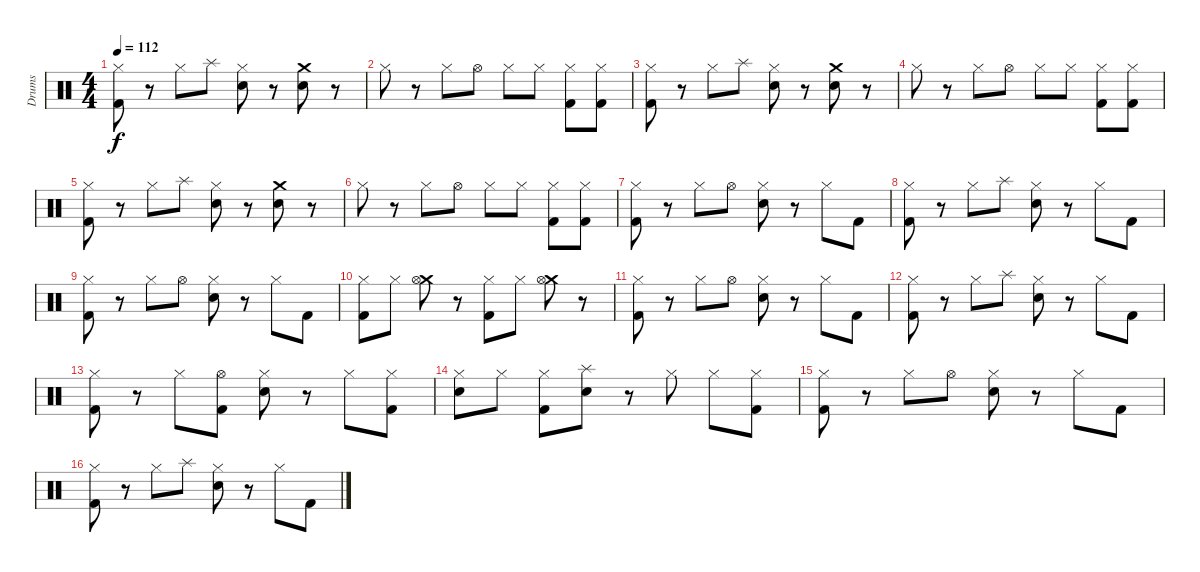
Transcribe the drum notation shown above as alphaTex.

\track ("Drums" "Drums") {instrument percussion}
\staff {score}
\articulation defaults
\ts (4 4)
\tempo 112
\clef neutral
\ks c
("Hi-Hat (closed)" "Kick (hit) 2").8{dy f} r.8 "Hi-Hat (closed)".8 "Splash (hit)".8 ("Hi-Hat (closed)" "Snare (hit) 2").8 r.8 ("Crash medium (hit)" "Snare (hit) 2").8 r.8 |
"Hi-Hat (closed)".8 r.8 "Hi-Hat (closed)".8 "Hi-Hat (open)".8 "Hi-Hat (closed)".8 "Hi-Hat (closed)".8 ("Hi-Hat (closed)" "Kick (hit) 2").8 ("Hi-Hat (closed)" "Kick (hit) 2").8 |
("Hi-Hat (closed)" "Kick (hit) 2").8 r.8 "Hi-Hat (closed)".8 "Splash (hit)".8 ("Hi-Hat (closed)" "Snare (hit) 2").8 r.8 ("Crash medium (hit)" "Snare (hit) 2").8 r.8 |
"Hi-Hat (closed)".8 r.8 "Hi-Hat (closed)".8 "Hi-Hat (open)".8 "Hi-Hat (closed)".8 "Hi-Hat (closed)".8 ("Hi-Hat (closed)" "Kick (hit) 2").8 ("Hi-Hat (closed)" "Kick (hit) 2").8 |
("Hi-Hat (closed)" "Kick (hit) 2").8 r.8 "Hi-Hat (closed)".8 "Splash (hit)".8 ("Hi-Hat (closed)" "Snare (hit) 2").8 r.8 ("Crash medium (hit)" "Snare (hit) 2").8 r.8 |
"Hi-Hat (closed)".8 r.8 "Hi-Hat (closed)".8 "Hi-Hat (open)".8 "Hi-Hat (closed)".8 "Hi-Hat (closed)".8 ("Hi-Hat (closed)" "Kick (hit) 2").8 ("Hi-Hat (closed)" "Kick (hit) 2").8 |
("Hi-Hat (closed)" "Kick (hit) 2").8 r.8 "Hi-Hat (closed)".8 "Hi-Hat (open)".8 ("Hi-Hat (closed)" "Snare (hit) 2").8 r.8 "Hi-Hat (closed)".8 "Kick (hit) 2".8 |
("Hi-Hat (closed)" "Kick (hit) 2").8 r.8 "Hi-Hat (closed)".8 "Splash (hit)".8 ("Hi-Hat (closed)" "Snare (hit) 2").8 r.8 "Hi-Hat (closed)".8 "Kick (hit) 2".8 |
("Hi-Hat (closed)" "Kick (hit) 2").8 r.8 "Hi-Hat (closed)".8 "Hi-Hat (open)".8 ("Hi-Hat (closed)" "Snare (hit) 2").8 r.8 "Hi-Hat (closed)".8 "Kick (hit) 2".8 |
("Hi-Hat (closed)" "Kick (hit) 2").8 "Hi-Hat (closed)".8 ("Crash medium (hit)" "Hi-Hat (open)").8 r.8 ("Hi-Hat (closed)" "Kick (hit) 2").8 "Hi-Hat (closed)".8 ("Crash medium (hit)" "Hi-Hat (open)").8 r.8 |
("Hi-Hat (closed)" "Kick (hit) 2").8 r.8 "Hi-Hat (closed)".8 "Hi-Hat (open)".8 ("Hi-Hat (closed)" "Snare (hit) 2").8 r.8 "Hi-Hat (closed)".8 "Kick (hit) 2".8 |
("Hi-Hat (closed)" "Kick (hit) 2").8 r.8 "Hi-Hat (closed)".8 "Splash (hit)".8 ("Hi-Hat (closed)" "Snare (hit) 2").8 r.8 "Hi-Hat (closed)".8 "Kick (hit) 2".8 |
("Hi-Hat (closed)" "Kick (hit) 2").8 r.8 "Hi-Hat (closed)".8 ("Hi-Hat (open)" "Kick (hit) 2").8 ("Hi-Hat (closed)" "Snare (hit) 2").8 r.8 "Hi-Hat (closed)".8 ("Hi-Hat (closed)" "Kick (hit) 2").8 |
("Hi-Hat (closed)" "Snare (hit) 2").8 "Hi-Hat (closed)".8 ("Hi-Hat (closed)" "Kick (hit) 2").8 ("Splash (hit)" "Snare (hit) 2").8 r.8 "Hi-Hat (closed)".8 "Hi-Hat (closed)".8 ("Hi-Hat (closed)" "Kick (hit) 2").8 |
("Hi-Hat (closed)" "Kick (hit) 2").8 r.8 "Hi-Hat (closed)".8 "Hi-Hat (open)".8 ("Hi-Hat (closed)" "Snare (hit) 2").8 r.8 "Hi-Hat (closed)".8 "Kick (hit) 2".8 |
("Hi-Hat (closed)" "Kick (hit) 2").8 r.8 "Hi-Hat (closed)".8 "Splash (hit)".8 ("Hi-Hat (closed)" "Snare (hit) 2").8 r.8 "Hi-Hat (closed)".8 "Kick (hit) 2".8
